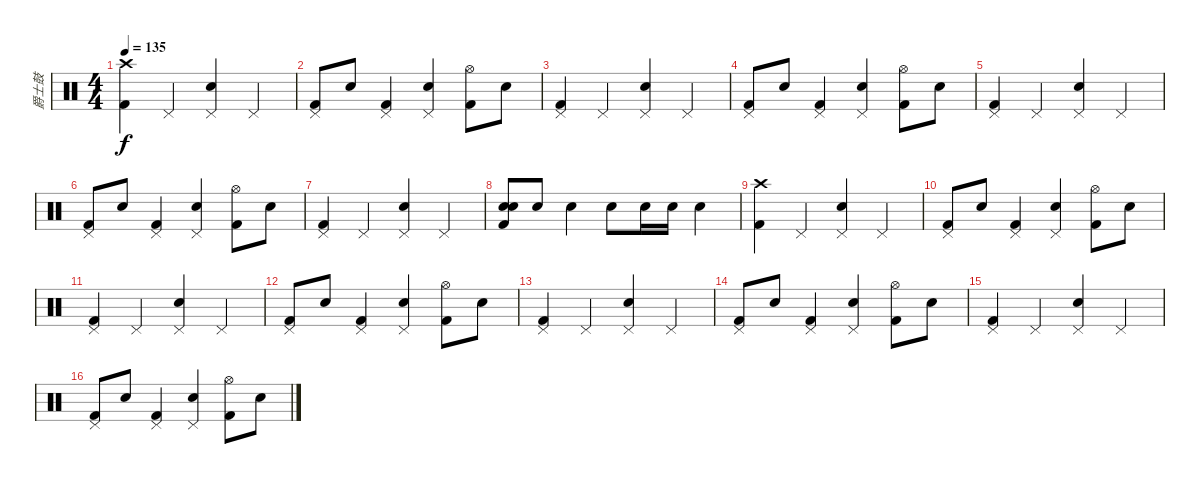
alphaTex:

\track ("爵士鼓" "爵士鼓") {instrument percussion}
\staff {score}
\articulation defaults
\ts (4 4)
\tempo 135
\clef neutral
\ks c
("Crash high (hit)" "Kick (hit) 2").4{dy f} "Pedal Hi-Hat (hit)".4 ("Pedal Hi-Hat (hit)" "Snare (hit) 2").4 "Pedal Hi-Hat (hit)".4 |
("Pedal Hi-Hat (hit)" "Kick (hit) 2").8 "Snare (hit) 2".8 ("Pedal Hi-Hat (hit)" "Kick (hit) 2").4 ("Pedal Hi-Hat (hit)" "Snare (hit) 2").4 ("Hi-Hat (open)" "Kick (hit) 2").8 "Snare (hit) 2".8 |
("Pedal Hi-Hat (hit)" "Kick (hit) 2").4 "Pedal Hi-Hat (hit)".4 ("Pedal Hi-Hat (hit)" "Snare (hit) 2").4 "Pedal Hi-Hat (hit)".4 |
("Pedal Hi-Hat (hit)" "Kick (hit) 2").8 "Snare (hit) 2".8 ("Pedal Hi-Hat (hit)" "Kick (hit) 2").4 ("Pedal Hi-Hat (hit)" "Snare (hit) 2").4 ("Hi-Hat (open)" "Kick (hit) 2").8 "Snare (hit) 2".8 |
("Pedal Hi-Hat (hit)" "Kick (hit) 2").4 "Pedal Hi-Hat (hit)".4 ("Pedal Hi-Hat (hit)" "Snare (hit) 2").4 "Pedal Hi-Hat (hit)".4 |
("Pedal Hi-Hat (hit)" "Kick (hit) 2").8 "Snare (hit) 2".8 ("Pedal Hi-Hat (hit)" "Kick (hit) 2").4 ("Pedal Hi-Hat (hit)" "Snare (hit) 2").4 ("Hi-Hat (open)" "Kick (hit) 2").8 "Snare (hit) 2".8 |
("Pedal Hi-Hat (hit)" "Kick (hit) 2").4 "Pedal Hi-Hat (hit)".4 ("Pedal Hi-Hat (hit)" "Snare (hit) 2").4 "Pedal Hi-Hat (hit)".4 |
("Snare (hit) 2" "Electric Snare (hit)" "Kick (hit) 2").8 "Snare (hit) 2".8 "Electric Snare (hit)".4 "Snare (hit) 2".8 "Snare (hit) 2".16 "Electric Snare (hit)".16 "Electric Snare (hit)".4 |
("Crash high (hit)" "Kick (hit) 2").4 "Pedal Hi-Hat (hit)".4 ("Pedal Hi-Hat (hit)" "Snare (hit) 2").4 "Pedal Hi-Hat (hit)".4 |
("Pedal Hi-Hat (hit)" "Kick (hit) 2").8 "Snare (hit) 2".8 ("Pedal Hi-Hat (hit)" "Kick (hit) 2").4 ("Pedal Hi-Hat (hit)" "Snare (hit) 2").4 ("Hi-Hat (open)" "Kick (hit) 2").8 "Snare (hit) 2".8 |
("Pedal Hi-Hat (hit)" "Kick (hit) 2").4 "Pedal Hi-Hat (hit)".4 ("Pedal Hi-Hat (hit)" "Snare (hit) 2").4 "Pedal Hi-Hat (hit)".4 |
("Pedal Hi-Hat (hit)" "Kick (hit) 2").8 "Snare (hit) 2".8 ("Pedal Hi-Hat (hit)" "Kick (hit) 2").4 ("Pedal Hi-Hat (hit)" "Snare (hit) 2").4 ("Hi-Hat (open)" "Kick (hit) 2").8 "Snare (hit) 2".8 |
("Pedal Hi-Hat (hit)" "Kick (hit) 2").4 "Pedal Hi-Hat (hit)".4 ("Pedal Hi-Hat (hit)" "Snare (hit) 2").4 "Pedal Hi-Hat (hit)".4 |
("Pedal Hi-Hat (hit)" "Kick (hit) 2").8 "Snare (hit) 2".8 ("Pedal Hi-Hat (hit)" "Kick (hit) 2").4 ("Pedal Hi-Hat (hit)" "Snare (hit) 2").4 ("Hi-Hat (open)" "Kick (hit) 2").8 "Snare (hit) 2".8 |
("Pedal Hi-Hat (hit)" "Kick (hit) 2").4 "Pedal Hi-Hat (hit)".4 ("Pedal Hi-Hat (hit)" "Snare (hit) 2").4 "Pedal Hi-Hat (hit)".4 |
("Pedal Hi-Hat (hit)" "Kick (hit) 2").8 "Snare (hit) 2".8 ("Pedal Hi-Hat (hit)" "Kick (hit) 2").4 ("Pedal Hi-Hat (hit)" "Snare (hit) 2").4 ("Hi-Hat (open)" "Kick (hit) 2").8 "Snare (hit) 2".8
